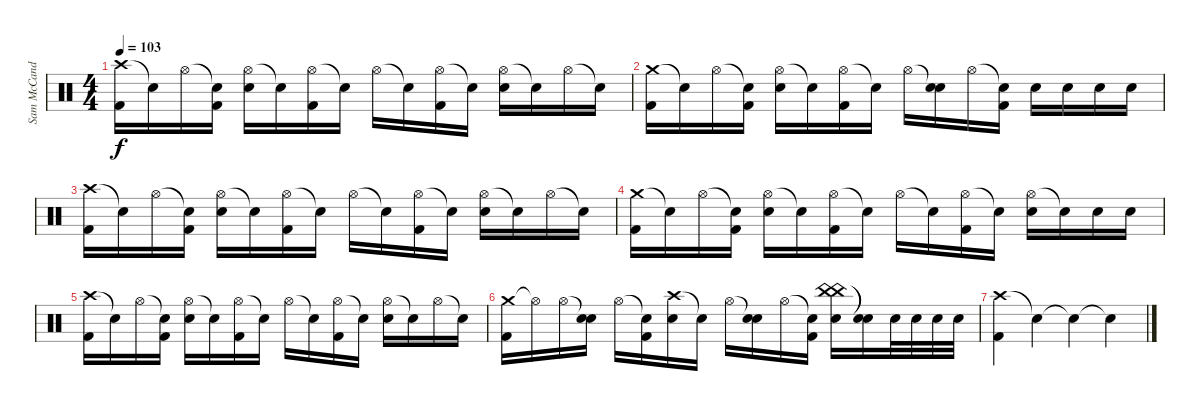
\track ("Sam McCandless (Drums)" "Sam McCand") {instrument percussion}
\staff {score}
\articulation defaults
\ts (4 4)
\tempo 103
\clef neutral
\ks c
("Crash high (hit)" "Kick (hit) 2").16{dy f} "Snare (hit)"{t}.16 "Hi-Hat (open)".16 ("Snare (hit)"{t} "Kick (hit) 2").16 ("Hi-Hat (open)" "Electric Snare (hit)").16 "Snare (hit)"{t}.16 ("Hi-Hat (open)" "Kick (hit) 2").16 "Snare (hit)"{t}.16 "Hi-Hat (open)".16 "Snare (hit)"{t}.16 ("Hi-Hat (open)" "Kick (hit) 2").16 "Snare (hit)"{t}.16 ("Hi-Hat (open)" "Electric Snare (hit)").16 "Snare (hit)"{t}.16 "Hi-Hat (open)".16 "Snare (hit)"{t}.16 |
("Crash medium (hit)" "Kick (hit) 2").16 "Snare (hit)"{t}.16 "Hi-Hat (open)".16 ("Snare (hit)"{t} "Kick (hit) 2").16 ("Hi-Hat (open)" "Electric Snare (hit)").16 "Snare (hit)"{t}.16 ("Hi-Hat (open)" "Kick (hit) 2").16 "Snare (hit)"{t}.16 "Hi-Hat (open)".16 ("Snare (hit)"{t} "Electric Snare (hit)").16 "Hi-Hat (open)".16 ("Snare (hit)"{t} "Kick (hit) 2").16 "Electric Snare (hit)".16 "Electric Snare (hit)".16 "Electric Snare (hit)".16 "Electric Snare (hit)".16 |
("Crash high (hit)" "Kick (hit) 2").16 "Snare (hit)"{t}.16 "Hi-Hat (open)".16 ("Snare (hit)"{t} "Kick (hit) 2").16 ("Hi-Hat (open)" "Electric Snare (hit)").16 "Snare (hit)"{t}.16 ("Hi-Hat (open)" "Kick (hit) 2").16 "Snare (hit)"{t}.16 "Hi-Hat (open)".16 "Snare (hit)"{t}.16 ("Hi-Hat (open)" "Kick (hit) 2").16 "Snare (hit)"{t}.16 ("Hi-Hat (open)" "Electric Snare (hit)").16 "Snare (hit)"{t}.16 "Hi-Hat (open)".16 "Snare (hit)"{t}.16 |
("Crash medium (hit)" "Kick (hit) 2").16 "Snare (hit)"{t}.16 "Hi-Hat (open)".16 ("Snare (hit)"{t} "Kick (hit) 2").16 ("Hi-Hat (open)" "Electric Snare (hit)").16 "Snare (hit)"{t}.16 ("Hi-Hat (open)" "Kick (hit) 2").16 "Snare (hit)"{t}.16 "Hi-Hat (open)".16 "Snare (hit)"{t}.16 ("Hi-Hat (open)" "Kick (hit) 2").16 "Snare (hit)"{t}.16 ("Hi-Hat (open)" "Electric Snare (hit)").16 "Snare (hit)"{t}.16 "Electric Snare (hit)".16 "Electric Snare (hit)".16 |
("Crash high (hit)" "Kick (hit) 2").16 "Snare (hit)"{t}.16 "Hi-Hat (open)".16 ("Snare (hit)"{t} "Kick (hit) 2").16 ("Hi-Hat (open)" "Electric Snare (hit)").16 "Snare (hit)"{t}.16 ("Hi-Hat (open)" "Kick (hit) 2").16 "Snare (hit)"{t}.16 "Hi-Hat (open)".16 "Snare (hit)"{t}.16 ("Hi-Hat (open)" "Kick (hit) 2").16 "Snare (hit)"{t}.16 ("Hi-Hat (open)" "Electric Snare (hit)").16 "Snare (hit)"{t}.16 "Hi-Hat (open)".16 "Snare (hit)"{t}.16 |
("Crash medium (hit)" "Kick (hit) 2").16 "Hi-Hat (open)"{t}.16 "Hi-Hat (open)".16 ("Snare (hit)"{t} "Electric Snare (hit)").16 "Hi-Hat (open)".16 ("Snare (hit)"{t} "Kick (hit) 2").16 ("Crash high (hit)" "Electric Snare (hit)").16 "Snare (hit)"{t}.16 "Hi-Hat (open)".16 ("Snare (hit)"{t} "Electric Snare (hit)").16 "Hi-Hat (open)".16 ("Snare (hit)"{t} "Kick (hit) 2").16 ("China (hit)" "China (hit)" "Electric Snare (hit)").16 ("Snare (hit)"{t} "Snare (hit)"{t}).16 "Electric Snare (hit)".32 "Electric Snare (hit)".32 "Electric Snare (hit)".32 "Electric Snare (hit)".32 |
("Crash high (hit)" "Kick (hit) 2").4 "Snare (hit)"{t}.4 "Snare (hit)"{t}.4 "Snare (hit)"{t}.4
